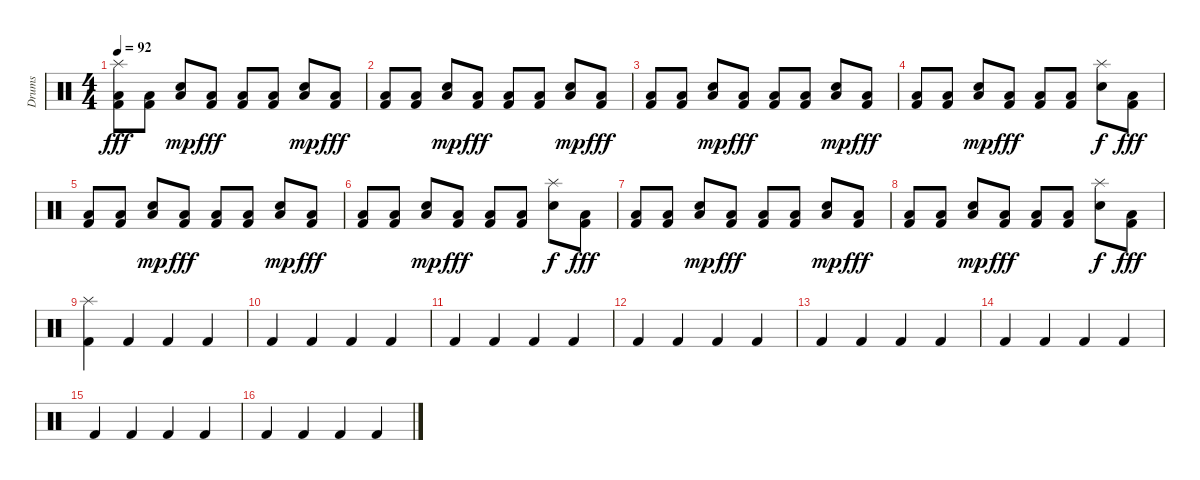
\track ("Drums" "Drums") {instrument percussion}
\staff {score}
\articulation defaults
\ts (4 4)
\tempo 92
\clef neutral
\ks c
("Splash (hit)" "Low Floor Tom (hit)" "Kick (hit) 2").8{dy fff} ("Low Floor Tom (hit)" "Kick (hit) 2").8 ("Snare (hit) 2" "Low Floor Tom (hit)").8{dy mp} ("Low Floor Tom (hit)" "Kick (hit) 2").8{dy fff} ("Low Floor Tom (hit)" "Kick (hit) 2").8 ("Low Floor Tom (hit)" "Kick (hit) 2").8 ("Snare (hit) 2" "Low Floor Tom (hit)").8{dy mp} ("Low Floor Tom (hit)" "Kick (hit) 2").8{dy fff} |
("Low Floor Tom (hit)" "Kick (hit) 2").8 ("Low Floor Tom (hit)" "Kick (hit) 2").8 ("Snare (hit) 2" "Low Floor Tom (hit)").8{dy mp} ("Low Floor Tom (hit)" "Kick (hit) 2").8{dy fff} ("Low Floor Tom (hit)" "Kick (hit) 2").8 ("Low Floor Tom (hit)" "Kick (hit) 2").8 ("Snare (hit) 2" "Low Floor Tom (hit)").8{dy mp} ("Low Floor Tom (hit)" "Kick (hit) 2").8{dy fff} |
("Low Floor Tom (hit)" "Kick (hit) 2").8 ("Low Floor Tom (hit)" "Kick (hit) 2").8 ("Snare (hit) 2" "Low Floor Tom (hit)").8{dy mp} ("Low Floor Tom (hit)" "Kick (hit) 2").8{dy fff} ("Low Floor Tom (hit)" "Kick (hit) 2").8 ("Low Floor Tom (hit)" "Kick (hit) 2").8 ("Snare (hit) 2" "Low Floor Tom (hit)").8{dy mp} ("Low Floor Tom (hit)" "Kick (hit) 2").8{dy fff} |
("Low Floor Tom (hit)" "Kick (hit) 2").8 ("Low Floor Tom (hit)" "Kick (hit) 2").8 ("Snare (hit) 2" "Low Floor Tom (hit)").8{dy mp} ("Low Floor Tom (hit)" "Kick (hit) 2").8{dy fff} ("Low Floor Tom (hit)" "Kick (hit) 2").8 ("Low Floor Tom (hit)" "Kick (hit) 2").8 ("Splash (hit)" "Snare (hit) 2").8{dy f} ("Low Floor Tom (hit)" "Kick (hit) 2").8{dy fff} |
("Low Floor Tom (hit)" "Kick (hit) 2").8 ("Low Floor Tom (hit)" "Kick (hit) 2").8 ("Snare (hit) 2" "Low Floor Tom (hit)").8{dy mp} ("Low Floor Tom (hit)" "Kick (hit) 2").8{dy fff} ("Low Floor Tom (hit)" "Kick (hit) 2").8 ("Low Floor Tom (hit)" "Kick (hit) 2").8 ("Snare (hit) 2" "Low Floor Tom (hit)").8{dy mp} ("Low Floor Tom (hit)" "Kick (hit) 2").8{dy fff} |
("Low Floor Tom (hit)" "Kick (hit) 2").8 ("Low Floor Tom (hit)" "Kick (hit) 2").8 ("Snare (hit) 2" "Low Floor Tom (hit)").8{dy mp} ("Low Floor Tom (hit)" "Kick (hit) 2").8{dy fff} ("Low Floor Tom (hit)" "Kick (hit) 2").8 ("Low Floor Tom (hit)" "Kick (hit) 2").8 ("Splash (hit)" "Snare (hit) 2").8{dy f} ("Low Floor Tom (hit)" "Kick (hit) 2").8{dy fff} |
("Low Floor Tom (hit)" "Kick (hit) 2").8 ("Low Floor Tom (hit)" "Kick (hit) 2").8 ("Snare (hit) 2" "Low Floor Tom (hit)").8{dy mp} ("Low Floor Tom (hit)" "Kick (hit) 2").8{dy fff} ("Low Floor Tom (hit)" "Kick (hit) 2").8 ("Low Floor Tom (hit)" "Kick (hit) 2").8 ("Snare (hit) 2" "Low Floor Tom (hit)").8{dy mp} ("Low Floor Tom (hit)" "Kick (hit) 2").8{dy fff} |
("Low Floor Tom (hit)" "Kick (hit) 2").8 ("Low Floor Tom (hit)" "Kick (hit) 2").8 ("Snare (hit) 2" "Low Floor Tom (hit)").8{dy mp} ("Low Floor Tom (hit)" "Kick (hit) 2").8{dy fff} ("Low Floor Tom (hit)" "Kick (hit) 2").8 ("Low Floor Tom (hit)" "Kick (hit) 2").8 ("Splash (hit)" "Snare (hit) 2").8{dy f} ("Low Floor Tom (hit)" "Kick (hit) 2").8{dy fff} |
("Splash (hit)" "Kick (hit) 2").4 "Kick (hit) 2".4 "Kick (hit) 2".4 "Kick (hit) 2".4 |
"Kick (hit) 2".4 "Kick (hit) 2".4 "Kick (hit) 2".4 "Kick (hit) 2".4 |
"Kick (hit) 2".4 "Kick (hit) 2".4 "Kick (hit) 2".4 "Kick (hit) 2".4 |
"Kick (hit) 2".4 "Kick (hit) 2".4 "Kick (hit) 2".4 "Kick (hit) 2".4 |
"Kick (hit) 2".4 "Kick (hit) 2".4 "Kick (hit) 2".4 "Kick (hit) 2".4 |
"Kick (hit) 2".4 "Kick (hit) 2".4 "Kick (hit) 2".4 "Kick (hit) 2".4 |
"Kick (hit) 2".4 "Kick (hit) 2".4 "Kick (hit) 2".4 "Kick (hit) 2".4 |
"Kick (hit) 2".4 "Kick (hit) 2".4 "Kick (hit) 2".4 "Kick (hit) 2".4
